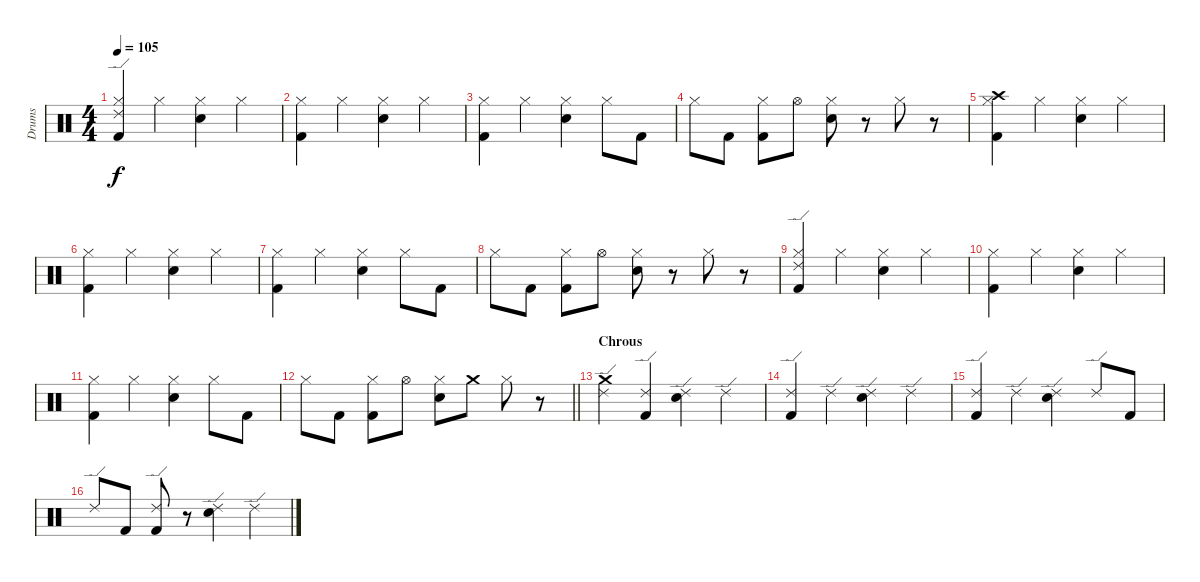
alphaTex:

\track ("Drums" "Drums") {instrument percussion}
\staff {score}
\articulation defaults
\ts (4 4)
\tempo 105
\clef neutral
\ks c
("Ride (edge) 2" "Hi-Hat (closed)" "Kick (hit) 2").4{dy f} "Hi-Hat (closed)".4 ("Hi-Hat (closed)" "Electric Snare (hit)").4 "Hi-Hat (closed)".4 |
("Hi-Hat (closed)" "Kick (hit) 2").4 "Hi-Hat (closed)".4 ("Hi-Hat (closed)" "Electric Snare (hit)").4 "Hi-Hat (closed)".4 |
("Hi-Hat (closed)" "Kick (hit) 2").4 "Hi-Hat (closed)".4 ("Hi-Hat (closed)" "Electric Snare (hit)").4 "Hi-Hat (closed)".8 "Kick (hit) 2".8 |
"Hi-Hat (closed)".8 "Kick (hit) 2".8 ("Hi-Hat (closed)" "Kick (hit) 2").8 "Hi-Hat (open)".8 ("Hi-Hat (closed)" "Electric Snare (hit)").8 r.8 "Hi-Hat (closed)".8 r.8 |
("Crash high (hit)" "Hi-Hat (closed)" "Kick (hit) 2").4 "Hi-Hat (closed)".4 ("Hi-Hat (closed)" "Electric Snare (hit)").4 "Hi-Hat (closed)".4 |
("Hi-Hat (closed)" "Kick (hit) 2").4 "Hi-Hat (closed)".4 ("Hi-Hat (closed)" "Electric Snare (hit)").4 "Hi-Hat (closed)".4 |
("Hi-Hat (closed)" "Kick (hit) 2").4 "Hi-Hat (closed)".4 ("Hi-Hat (closed)" "Electric Snare (hit)").4 "Hi-Hat (closed)".8 "Kick (hit) 2".8 |
"Hi-Hat (closed)".8 "Kick (hit) 2".8 ("Hi-Hat (closed)" "Kick (hit) 2").8 "Hi-Hat (open)".8 ("Hi-Hat (closed)" "Electric Snare (hit)").8 r.8 "Hi-Hat (closed)".8 r.8 |
("Ride (edge) 2" "Hi-Hat (closed)" "Kick (hit) 2").4 "Hi-Hat (closed)".4 ("Hi-Hat (closed)" "Electric Snare (hit)").4 "Hi-Hat (closed)".4 |
("Hi-Hat (closed)" "Kick (hit) 2").4 "Hi-Hat (closed)".4 ("Hi-Hat (closed)" "Electric Snare (hit)").4 "Hi-Hat (closed)".4 |
("Hi-Hat (closed)" "Kick (hit) 2").4 "Hi-Hat (closed)".4 ("Hi-Hat (closed)" "Electric Snare (hit)").4 "Hi-Hat (closed)".8 "Kick (hit) 2".8 |
\barLineRight lightlight "Hi-Hat (closed)".8 "Kick (hit) 2".8
("Hi-Hat (closed)" "Kick (hit) 2").8 "Hi-Hat (open)".8 ("Hi-Hat (closed)" "Electric Snare (hit)").8 "Crash medium (hit)".8 "Hi-Hat (closed)".8 r.8 |
\section ("" "Chrous")
("Crash medium (hit)" "Ride (edge) 2").4 ("Ride (edge) 2" "Kick (hit) 2").4 ("Ride (edge) 2" "Electric Snare (hit)").4 "Ride (edge) 2".4 |
("Ride (edge) 2" "Kick (hit) 2").4 "Ride (edge) 2".4 ("Ride (edge) 2" "Electric Snare (hit)").4 "Ride (edge) 2".4 |
("Ride (edge) 2" "Kick (hit) 2").4 "Ride (edge) 2".4 ("Ride (edge) 2" "Electric Snare (hit)").4 "Ride (edge) 2".8 "Kick (hit) 2".8 |
"Ride (edge) 2".8 "Kick (hit) 2".8 ("Ride (edge) 2" "Kick (hit) 2").8 r.8 ("Ride (edge) 2" "Electric Snare (hit)").4 "Ride (edge) 2".4
